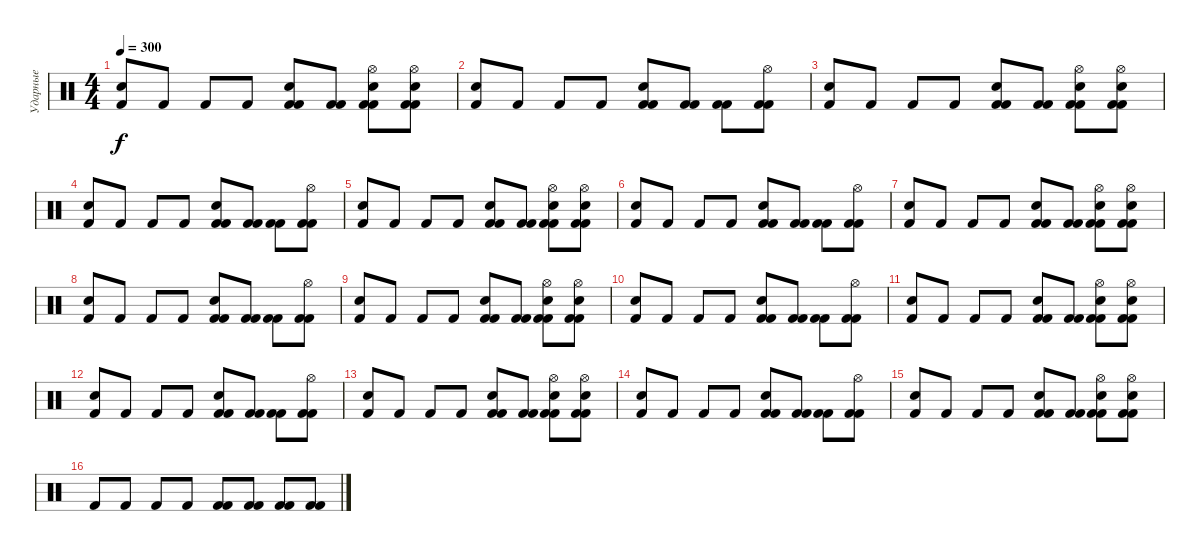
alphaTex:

\track ("Ударные" "Ударные") {instrument percussion}
\staff {score}
\articulation defaults
\ts (4 4)
\tempo 300
\clef neutral
\ks c
("Kick (hit) 2" "Electric Snare (hit)").8{dy f} "Kick (hit) 2".8 "Kick (hit) 2".8 "Kick (hit) 2".8 ("Kick (hit) 2" "Kick (hit) 2" "Electric Snare (hit)").8 ("Kick (hit) 2" "Kick (hit) 2").8 ("Kick (hit) 2" "Kick (hit) 2" "Hi-Hat (open)" "Electric Snare (hit)").8 ("Kick (hit) 2" "Kick (hit) 2" "Hi-Hat (open)" "Electric Snare (hit)").8 |
("Kick (hit) 2" "Electric Snare (hit)").8 "Kick (hit) 2".8 "Kick (hit) 2".8 "Kick (hit) 2".8 ("Kick (hit) 2" "Kick (hit) 2" "Electric Snare (hit)").8 ("Kick (hit) 2" "Kick (hit) 2").8 ("Kick (hit) 2" "Kick (hit) 2").8 ("Kick (hit) 2" "Kick (hit) 2" "Hi-Hat (open)").8 |
("Kick (hit) 2" "Electric Snare (hit)").8 "Kick (hit) 2".8 "Kick (hit) 2".8 "Kick (hit) 2".8 ("Kick (hit) 2" "Kick (hit) 2" "Electric Snare (hit)").8 ("Kick (hit) 2" "Kick (hit) 2").8 ("Kick (hit) 2" "Kick (hit) 2" "Hi-Hat (open)" "Electric Snare (hit)").8 ("Kick (hit) 2" "Kick (hit) 2" "Hi-Hat (open)" "Electric Snare (hit)").8 |
("Kick (hit) 2" "Electric Snare (hit)").8 "Kick (hit) 2".8 "Kick (hit) 2".8 "Kick (hit) 2".8 ("Kick (hit) 2" "Kick (hit) 2" "Electric Snare (hit)").8 ("Kick (hit) 2" "Kick (hit) 2").8 ("Kick (hit) 2" "Kick (hit) 2").8 ("Kick (hit) 2" "Kick (hit) 2" "Hi-Hat (open)").8 |
("Kick (hit) 2" "Electric Snare (hit)").8 "Kick (hit) 2".8 "Kick (hit) 2".8 "Kick (hit) 2".8 ("Kick (hit) 2" "Kick (hit) 2" "Electric Snare (hit)").8 ("Kick (hit) 2" "Kick (hit) 2").8 ("Kick (hit) 2" "Kick (hit) 2" "Hi-Hat (open)" "Electric Snare (hit)").8 ("Kick (hit) 2" "Kick (hit) 2" "Hi-Hat (open)" "Electric Snare (hit)").8 |
("Kick (hit) 2" "Electric Snare (hit)").8 "Kick (hit) 2".8 "Kick (hit) 2".8 "Kick (hit) 2".8 ("Kick (hit) 2" "Kick (hit) 2" "Electric Snare (hit)").8 ("Kick (hit) 2" "Kick (hit) 2").8 ("Kick (hit) 2" "Kick (hit) 2").8 ("Kick (hit) 2" "Kick (hit) 2" "Hi-Hat (open)").8 |
("Kick (hit) 2" "Electric Snare (hit)").8 "Kick (hit) 2".8 "Kick (hit) 2".8 "Kick (hit) 2".8 ("Kick (hit) 2" "Kick (hit) 2" "Electric Snare (hit)").8 ("Kick (hit) 2" "Kick (hit) 2").8 ("Kick (hit) 2" "Kick (hit) 2" "Hi-Hat (open)" "Electric Snare (hit)").8 ("Kick (hit) 2" "Kick (hit) 2" "Hi-Hat (open)" "Electric Snare (hit)").8 |
("Kick (hit) 2" "Electric Snare (hit)").8 "Kick (hit) 2".8 "Kick (hit) 2".8 "Kick (hit) 2".8 ("Kick (hit) 2" "Kick (hit) 2" "Electric Snare (hit)").8 ("Kick (hit) 2" "Kick (hit) 2").8 ("Kick (hit) 2" "Kick (hit) 2").8 ("Kick (hit) 2" "Kick (hit) 2" "Hi-Hat (open)").8 |
("Kick (hit) 2" "Electric Snare (hit)").8 "Kick (hit) 2".8 "Kick (hit) 2".8 "Kick (hit) 2".8 ("Kick (hit) 2" "Kick (hit) 2" "Electric Snare (hit)").8 ("Kick (hit) 2" "Kick (hit) 2").8 ("Kick (hit) 2" "Kick (hit) 2" "Hi-Hat (open)" "Electric Snare (hit)").8 ("Kick (hit) 2" "Kick (hit) 2" "Hi-Hat (open)" "Electric Snare (hit)").8 |
("Kick (hit) 2" "Electric Snare (hit)").8 "Kick (hit) 2".8 "Kick (hit) 2".8 "Kick (hit) 2".8 ("Kick (hit) 2" "Kick (hit) 2" "Electric Snare (hit)").8 ("Kick (hit) 2" "Kick (hit) 2").8 ("Kick (hit) 2" "Kick (hit) 2").8 ("Kick (hit) 2" "Kick (hit) 2" "Hi-Hat (open)").8 |
("Kick (hit) 2" "Electric Snare (hit)").8 "Kick (hit) 2".8 "Kick (hit) 2".8 "Kick (hit) 2".8 ("Kick (hit) 2" "Kick (hit) 2" "Electric Snare (hit)").8 ("Kick (hit) 2" "Kick (hit) 2").8 ("Kick (hit) 2" "Kick (hit) 2" "Hi-Hat (open)" "Electric Snare (hit)").8 ("Kick (hit) 2" "Kick (hit) 2" "Hi-Hat (open)" "Electric Snare (hit)").8 |
("Kick (hit) 2" "Electric Snare (hit)").8 "Kick (hit) 2".8 "Kick (hit) 2".8 "Kick (hit) 2".8 ("Kick (hit) 2" "Kick (hit) 2" "Electric Snare (hit)").8 ("Kick (hit) 2" "Kick (hit) 2").8 ("Kick (hit) 2" "Kick (hit) 2").8 ("Kick (hit) 2" "Kick (hit) 2" "Hi-Hat (open)").8 |
("Kick (hit) 2" "Electric Snare (hit)").8 "Kick (hit) 2".8 "Kick (hit) 2".8 "Kick (hit) 2".8 ("Kick (hit) 2" "Kick (hit) 2" "Electric Snare (hit)").8 ("Kick (hit) 2" "Kick (hit) 2").8 ("Kick (hit) 2" "Kick (hit) 2" "Hi-Hat (open)" "Electric Snare (hit)").8 ("Kick (hit) 2" "Kick (hit) 2" "Hi-Hat (open)" "Electric Snare (hit)").8 |
("Kick (hit) 2" "Electric Snare (hit)").8 "Kick (hit) 2".8 "Kick (hit) 2".8 "Kick (hit) 2".8 ("Kick (hit) 2" "Kick (hit) 2" "Electric Snare (hit)").8 ("Kick (hit) 2" "Kick (hit) 2").8 ("Kick (hit) 2" "Kick (hit) 2").8 ("Kick (hit) 2" "Kick (hit) 2" "Hi-Hat (open)").8 |
("Kick (hit) 2" "Electric Snare (hit)").8 "Kick (hit) 2".8 "Kick (hit) 2".8 "Kick (hit) 2".8 ("Kick (hit) 2" "Kick (hit) 2" "Electric Snare (hit)").8 ("Kick (hit) 2" "Kick (hit) 2").8 ("Kick (hit) 2" "Kick (hit) 2" "Hi-Hat (open)" "Electric Snare (hit)").8 ("Kick (hit) 2" "Kick (hit) 2" "Hi-Hat (open)" "Electric Snare (hit)").8 |
"Kick (hit) 2".8 "Kick (hit) 2".8 "Kick (hit) 2".8 "Kick (hit) 2".8 ("Kick (hit) 2" "Kick (hit) 2").8 ("Kick (hit) 2" "Kick (hit) 2").8 ("Kick (hit) 2" "Kick (hit) 2").8 ("Kick (hit) 2" "Kick (hit) 2").8
